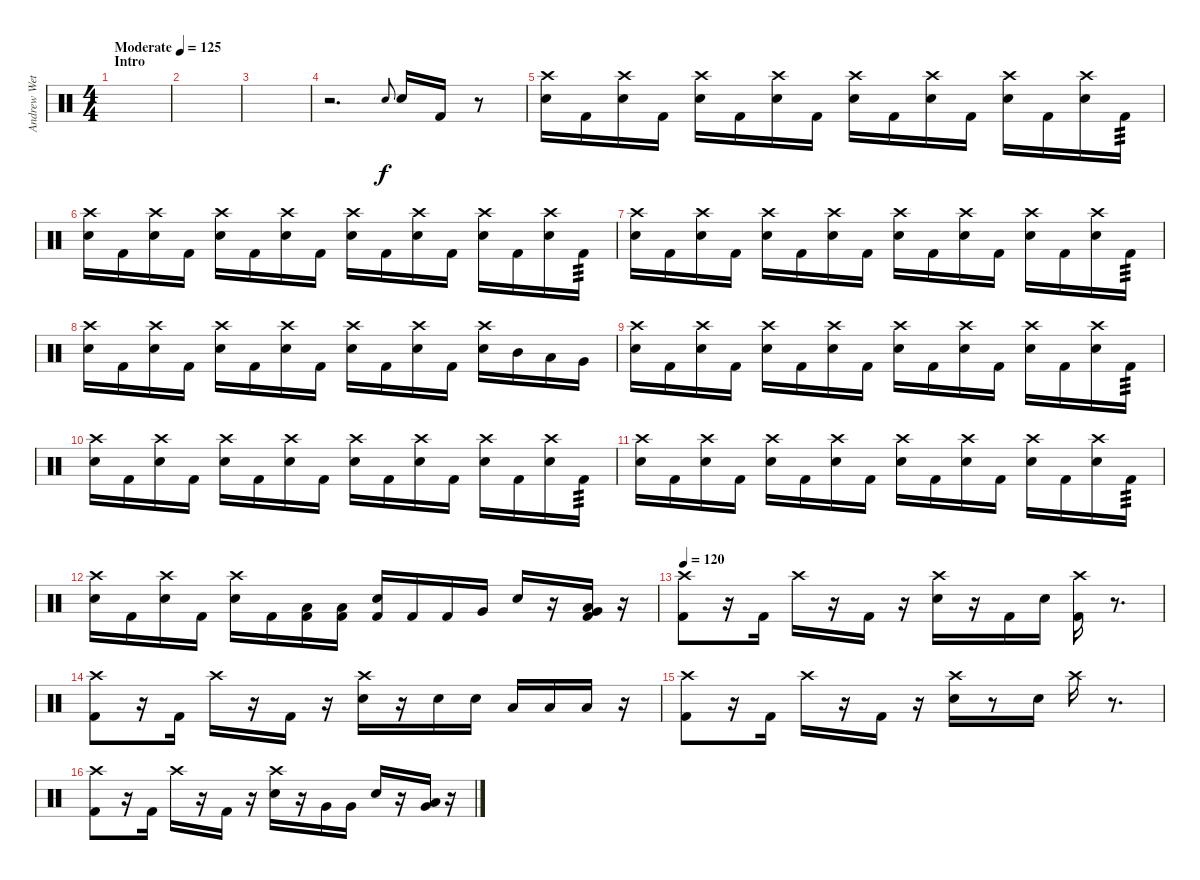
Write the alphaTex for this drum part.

\track ("Andrew Wetzel" "Andrew Wet") {instrument percussion}
\staff {score}
\articulation defaults
\ts (4 4)
\section ("" "Intro")
\tempo (125 "Moderate")
\clef neutral
\ks c
|
|
|
r.2{d} "Electric Snare (hit)".8{gr onbeat} "Electric Snare (hit)".16 "Kick (hit) 2".16 r.8 |
("Crash high (hit)" "Electric Snare (hit)").16 "Kick (hit) 2".16 ("Crash high (hit)" "Electric Snare (hit)").16 "Kick (hit) 2".16 ("Crash high (hit)" "Electric Snare (hit)").16 "Kick (hit) 2".16 ("Crash high (hit)" "Electric Snare (hit)").16 "Kick (hit) 2".16 ("Crash high (hit)" "Electric Snare (hit)").16 "Kick (hit) 2".16 ("Crash high (hit)" "Electric Snare (hit)").16 "Kick (hit) 2".16 ("Crash high (hit)" "Electric Snare (hit)").16 "Kick (hit) 2".16 ("Crash high (hit)" "Electric Snare (hit)").16 "Kick (hit) 2".16{tp 3} |
("Crash high (hit)" "Electric Snare (hit)").16 "Kick (hit) 2".16 ("Crash high (hit)" "Electric Snare (hit)").16 "Kick (hit) 2".16 ("Crash high (hit)" "Electric Snare (hit)").16 "Kick (hit) 2".16 ("Crash high (hit)" "Electric Snare (hit)").16 "Kick (hit) 2".16 ("Crash high (hit)" "Electric Snare (hit)").16 "Kick (hit) 2".16 ("Crash high (hit)" "Electric Snare (hit)").16 "Kick (hit) 2".16 ("Crash high (hit)" "Electric Snare (hit)").16 "Kick (hit) 2".16 ("Crash high (hit)" "Electric Snare (hit)").16 "Kick (hit) 2".16{tp 3} |
("Crash high (hit)" "Electric Snare (hit)").16 "Kick (hit) 2".16 ("Crash high (hit)" "Electric Snare (hit)").16 "Kick (hit) 2".16 ("Crash high (hit)" "Electric Snare (hit)").16 "Kick (hit) 2".16 ("Crash high (hit)" "Electric Snare (hit)").16 "Kick (hit) 2".16 ("Crash high (hit)" "Electric Snare (hit)").16 "Kick (hit) 2".16 ("Crash high (hit)" "Electric Snare (hit)").16 "Kick (hit) 2".16 ("Crash high (hit)" "Electric Snare (hit)").16 "Kick (hit) 2".16 ("Crash high (hit)" "Electric Snare (hit)").16 "Kick (hit) 2".16{tp 3} |
("Crash high (hit)" "Electric Snare (hit)").16 "Kick (hit) 2".16 ("Crash high (hit)" "Electric Snare (hit)").16 "Kick (hit) 2".16 ("Crash high (hit)" "Electric Snare (hit)").16 "Kick (hit) 2".16 ("Crash high (hit)" "Electric Snare (hit)").16 "Kick (hit) 2".16 ("Crash high (hit)" "Electric Snare (hit)").16 "Kick (hit) 2".16 ("Crash high (hit)" "Electric Snare (hit)").16 "Kick (hit) 2".16 ("Crash high (hit)" "Electric Snare (hit)").16 "Mid Tom (hit)".16 "Low Tom (hit)".16 "Very Low Tom (hit)".16 |
("Crash high (hit)" "Electric Snare (hit)").16 "Kick (hit) 2".16 ("Crash high (hit)" "Electric Snare (hit)").16 "Kick (hit) 2".16 ("Crash high (hit)" "Electric Snare (hit)").16 "Kick (hit) 2".16 ("Crash high (hit)" "Electric Snare (hit)").16 "Kick (hit) 2".16 ("Crash high (hit)" "Electric Snare (hit)").16 "Kick (hit) 2".16 ("Crash high (hit)" "Electric Snare (hit)").16 "Kick (hit) 2".16 ("Crash high (hit)" "Electric Snare (hit)").16 "Kick (hit) 2".16 ("Crash high (hit)" "Electric Snare (hit)").16 "Kick (hit) 2".16{tp 3} |
("Crash high (hit)" "Electric Snare (hit)").16 "Kick (hit) 2".16 ("Crash high (hit)" "Electric Snare (hit)").16 "Kick (hit) 2".16 ("Crash high (hit)" "Electric Snare (hit)").16 "Kick (hit) 2".16 ("Crash high (hit)" "Electric Snare (hit)").16 "Kick (hit) 2".16 ("Crash high (hit)" "Electric Snare (hit)").16 "Kick (hit) 2".16 ("Crash high (hit)" "Electric Snare (hit)").16 "Kick (hit) 2".16 ("Crash high (hit)" "Electric Snare (hit)").16 "Kick (hit) 2".16 ("Crash high (hit)" "Electric Snare (hit)").16 "Kick (hit) 2".16{tp 3} |
("Crash high (hit)" "Electric Snare (hit)").16 "Kick (hit) 2".16 ("Crash high (hit)" "Electric Snare (hit)").16 "Kick (hit) 2".16 ("Crash high (hit)" "Electric Snare (hit)").16 "Kick (hit) 2".16 ("Crash high (hit)" "Electric Snare (hit)").16 "Kick (hit) 2".16 ("Crash high (hit)" "Electric Snare (hit)").16 "Kick (hit) 2".16 ("Crash high (hit)" "Electric Snare (hit)").16 "Kick (hit) 2".16 ("Crash high (hit)" "Electric Snare (hit)").16 "Kick (hit) 2".16 ("Crash high (hit)" "Electric Snare (hit)").16 "Kick (hit) 2".16{tp 3} |
("Crash high (hit)" "Electric Snare (hit)").16 "Kick (hit) 2".16 ("Crash high (hit)" "Electric Snare (hit)").16 "Kick (hit) 2".16 ("Crash high (hit)" "Electric Snare (hit)").16 "Kick (hit) 2".16 ("Low Tom (hit)" "Kick (hit) 2").16 ("Low Tom (hit)" "Kick (hit) 2").16 ("Electric Snare (hit)" "Kick (hit) 2").16 "Kick (hit) 2".16 "Kick (hit) 2".16 "Very Low Tom (hit)".16 "Electric Snare (hit)".16 r.16 ("Low Tom (hit)" "Very Low Tom (hit)" "Kick (hit) 2").16 r.16 |
\tempo 120
("Crash high (hit)" "Kick (hit) 2").8 r.16 "Kick (hit) 2".16 "Crash high (hit)".16 r.16 "Kick (hit) 2".16 r.16 ("Crash high (hit)" "Electric Snare (hit)").16 r.16 "Kick (hit) 2".16 "Electric Snare (hit)".16 ("Crash high (hit)" "Kick (hit) 2").16 r.8{d} |
("Crash high (hit)" "Kick (hit) 2").8 r.16 "Kick (hit) 2".16 "Crash high (hit)".16 r.16 "Kick (hit) 2".16 r.16 ("Crash high (hit)" "Electric Snare (hit)").16 r.16 "Electric Snare (hit)".16 "Electric Snare (hit)".16 "Low Tom (hit)".16 "Low Tom (hit)".16 "Low Floor Tom (hit)".16 r.16 |
("Crash high (hit)" "Kick (hit) 2").8 r.16 "Kick (hit) 2".16 "Crash high (hit)".16 r.16 "Kick (hit) 2".16 r.16 ("Crash high (hit)" "Electric Snare (hit)").16 r.8 "Electric Snare (hit)".16 "Crash high (hit)".16 r.8{d} |
("Crash high (hit)" "Kick (hit) 2").8 r.16 "Kick (hit) 2".16 "Crash high (hit)".16 r.16 "Kick (hit) 2".16 r.16 ("Crash high (hit)" "Electric Snare (hit)").16 r.16 "Very Low Tom (hit)".16 "Very Low Tom (hit)".16 "Electric Snare (hit)".16 r.16 ("Very Low Tom (hit)" "Low Floor Tom (hit)").16 r.16
